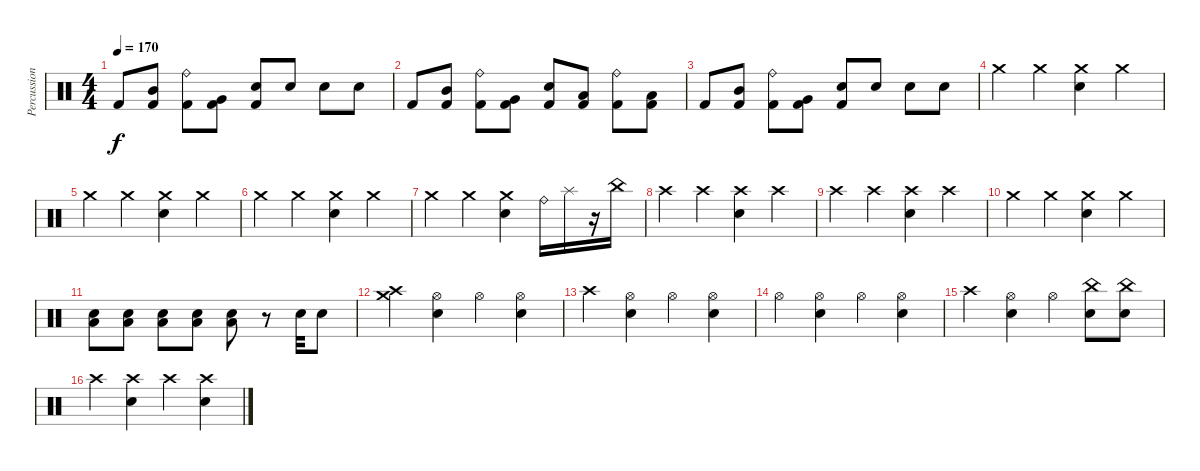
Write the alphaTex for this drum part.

\track ("Percussion" "Percussion") {solo instrument percussion}
\staff {score}
\articulation defaults
\ts (4 4)
\tempo 170
\clef neutral
\ks c "Kick (hit) 2".8{dy f}
("Kick (hit) 2" "Mid Tom (hit)").8 ("Kick (hit) 2" "Ride (bell)").8 ("Kick (hit) 2" "Very Low Tom (hit)").8 ("Kick (hit) 2" "Electric Snare (hit)").8 "Electric Snare (hit)".8 "Electric Snare (hit)".8 "Electric Snare (hit)".8 |
"Kick (hit) 2".8 ("Kick (hit) 2" "Mid Tom (hit)").8 ("Kick (hit) 2" "Ride (bell)").8 ("Kick (hit) 2" "Very Low Tom (hit)").8 ("Kick (hit) 2" "Electric Snare (hit)").8 ("Kick (hit) 2" "Low Tom (hit)").8 ("Kick (hit) 2" "Ride (bell)").8 ("Kick (hit) 2" "Low Floor Tom (hit)").8 |
"Kick (hit) 2".8 ("Kick (hit) 2" "Mid Tom (hit)").8 ("Kick (hit) 2" "Ride (bell)").8 ("Kick (hit) 2" "Very Low Tom (hit)").8 ("Kick (hit) 2" "Electric Snare (hit)").8 "Electric Snare (hit)".8 "Electric Snare (hit)".8 "Electric Snare (hit)".8 |
"Crash medium (hit)".4 "Crash medium (hit)".4 ("Crash medium (hit)" "Electric Snare (hit)").4 "Crash medium (hit)".4 |
"Crash medium (hit)".4 "Crash medium (hit)".4 ("Crash medium (hit)" "Electric Snare (hit)").4 "Crash medium (hit)".4 |
"Crash medium (hit)".4 "Crash medium (hit)".4 ("Crash medium (hit)" "Electric Snare (hit)").4 "Crash medium (hit)".4 |
"Crash medium (hit)".4 "Crash medium (hit)".4 ("Crash medium (hit)" "Electric Snare (hit)").4 "Ride (bell)".16 "Splash (hit)".16 r.16 "China (hit)".16 |
"Crash high (hit)".4 "Crash high (hit)".4 ("Crash high (hit)" "Electric Snare (hit)").4 "Crash high (hit)".4 |
"Crash high (hit)".4 "Crash high (hit)".4 ("Crash high (hit)" "Electric Snare (hit)").4 "Crash high (hit)".4 |
"Crash medium (hit)".4 "Crash medium (hit)".4 ("Crash medium (hit)" "Electric Snare (hit)").4 "Crash medium (hit)".4 |
("Low Floor Tom (hit)" "Electric Snare (hit)").8 ("Low Floor Tom (hit)" "Electric Snare (hit)").8 ("Low Floor Tom (hit)" "Electric Snare (hit)").8 ("Low Floor Tom (hit)" "Electric Snare (hit)").8 ("Low Floor Tom (hit)" "Electric Snare (hit)").8 r.8 "Electric Snare (hit)".32 "Electric Snare (hit)".8 |
("Crash high (hit)" "Crash medium (hit)").4 ("Hi-Hat (open)" "Electric Snare (hit)").4 "Hi-Hat (open)".4 ("Hi-Hat (open)" "Electric Snare (hit)").4 |
"Crash high (hit)".4 ("Hi-Hat (open)" "Electric Snare (hit)").4 "Hi-Hat (open)".4 ("Hi-Hat (open)" "Electric Snare (hit)").4 |
"Hi-Hat (open)".4 ("Hi-Hat (open)" "Electric Snare (hit)").4 "Hi-Hat (open)".4 ("Hi-Hat (open)" "Electric Snare (hit)").4 |
"Crash high (hit)".4 ("Hi-Hat (open)" "Electric Snare (hit)").4 "Hi-Hat (open)".4 ("China (hit)" "Electric Snare (hit)").8 ("Electric Snare (hit)" "China (hit)").8 |
"Crash high (hit)".4 ("Crash high (hit)" "Electric Snare (hit)").4 "Crash high (hit)".4 ("Crash high (hit)" "Electric Snare (hit)").4
